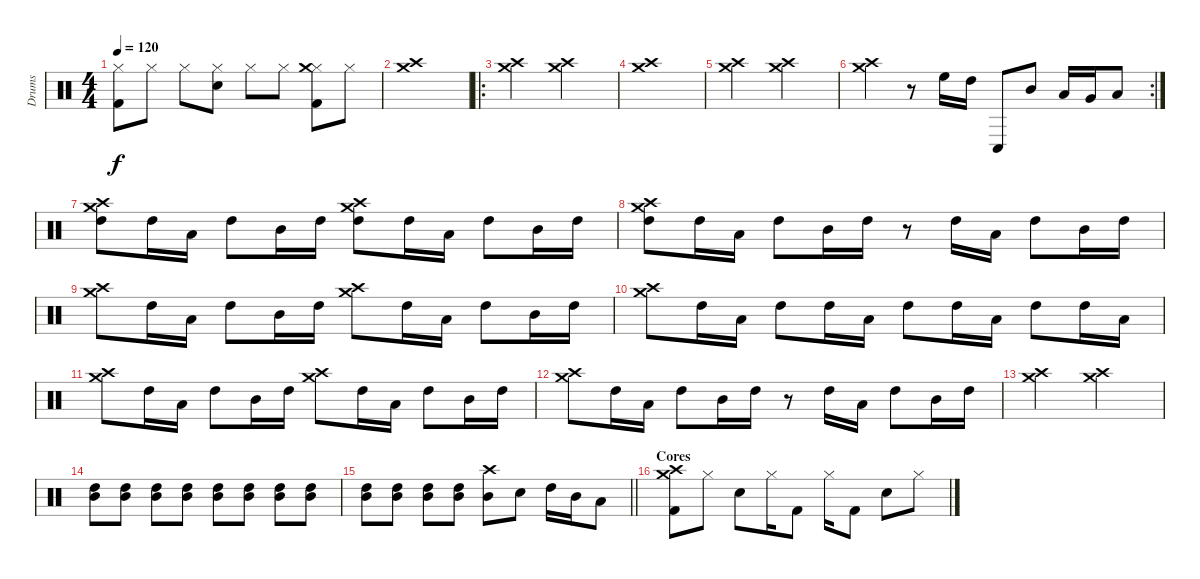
\track ("Drums" "Drums") {instrument percussion}
\staff {score}
\articulation defaults
\ts (4 4)
\tempo 120
\clef neutral
\ks c
("Kick (hit) 2" "Hi-Hat (closed)").8{dy f} "Hi-Hat (closed)".8 "Hi-Hat (closed)".8 ("Snare (hit) 2" "Hi-Hat (closed)").8 "Hi-Hat (closed)".8 "Hi-Hat (closed)".8 ("Kick (hit) 2" "Hi-Hat (closed)" "Crash medium (hit)").8 "Hi-Hat (closed)".8 |
("Crash high (hit)" "Crash medium (hit)").1 |
\ro
("Crash high (hit)" "Crash medium (hit)").2 ("Crash high (hit)" "Crash medium (hit)").2 |
("Crash high (hit)" "Crash medium (hit)").1 |
("Crash high (hit)" "Crash medium (hit)").2 ("Crash high (hit)" "Crash medium (hit)").2 |
\rc 2
("Crash high (hit)" "Crash medium (hit)").4 r.8 "High Floor Tom (hit)".16 "High Tom (hit)".16 "Conga low (hit)".8 "Mid Tom (hit)".8 "Low Tom (hit)".16 "Very Low Tom (hit)".16 "Low Floor Tom (hit)".8 |
("High Tom (hit)" "Crash high (hit)" "Crash medium (hit)").8 "High Tom (hit)".16 "Low Tom (hit)".16 "High Tom (hit)".8 "Mid Tom (hit)".16 "High Tom (hit)".16 ("High Tom (hit)" "Crash high (hit)" "Crash medium (hit)").8 "High Tom (hit)".16 "Low Tom (hit)".16 "High Tom (hit)".8 "Mid Tom (hit)".16 "High Tom (hit)".16 |
("High Tom (hit)" "Crash high (hit)" "Crash medium (hit)").8 "High Tom (hit)".16 "Low Tom (hit)".16 "High Tom (hit)".8 "Mid Tom (hit)".16 "High Tom (hit)".16 r.8 "High Tom (hit)".16 "Low Tom (hit)".16 "High Tom (hit)".8 "Mid Tom (hit)".16 "High Tom (hit)".16 |
("Crash high (hit)" "Crash medium (hit)").8 "High Tom (hit)".16 "Low Tom (hit)".16 "High Tom (hit)".8 "Mid Tom (hit)".16 "High Tom (hit)".16 ("Crash high (hit)" "Crash medium (hit)").8 "High Tom (hit)".16 "Low Tom (hit)".16 "High Tom (hit)".8 "Mid Tom (hit)".16 "High Tom (hit)".16 |
("Crash high (hit)" "Crash medium (hit)").8 "High Tom (hit)".16 "Low Tom (hit)".16 "High Tom (hit)".8 "High Tom (hit)".16 "Low Tom (hit)".16 "High Tom (hit)".8 "High Tom (hit)".16 "Low Tom (hit)".16 "High Tom (hit)".8 "High Tom (hit)".16 "Low Tom (hit)".16 |
("Crash high (hit)" "Crash medium (hit)").8 "High Tom (hit)".16 "Low Tom (hit)".16 "High Tom (hit)".8 "Mid Tom (hit)".16 "High Tom (hit)".16 ("Crash high (hit)" "Crash medium (hit)").8 "High Tom (hit)".16 "Low Tom (hit)".16 "High Tom (hit)".8 "Mid Tom (hit)".16 "High Tom (hit)".16 |
("Crash high (hit)" "Crash medium (hit)").8 "High Tom (hit)".16 "Low Tom (hit)".16 "High Tom (hit)".8 "Mid Tom (hit)".16 "High Tom (hit)".16 r.8 "High Tom (hit)".16 "Low Tom (hit)".16 "High Tom (hit)".8 "Mid Tom (hit)".16 "High Tom (hit)".16 |
("Crash high (hit)" "Crash medium (hit)").2 ("Crash high (hit)" "Crash medium (hit)").2 |
("Mid Tom (hit)" "High Tom (hit)").8 ("Mid Tom (hit)" "High Tom (hit)").8 ("Mid Tom (hit)" "High Tom (hit)").8 ("Mid Tom (hit)" "High Tom (hit)").8 ("Mid Tom (hit)" "High Tom (hit)").8 ("Mid Tom (hit)" "High Tom (hit)").8 ("Mid Tom (hit)" "High Tom (hit)").8 ("Mid Tom (hit)" "High Tom (hit)").8 |
\barLineRight lightlight
("Mid Tom (hit)" "High Tom (hit)").8 ("Mid Tom (hit)" "High Tom (hit)").8 ("Mid Tom (hit)" "High Tom (hit)").8 ("Mid Tom (hit)" "High Tom (hit)").8 ("Mid Tom (hit)" "Crash high (hit)").8 "Snare (hit) 2".8 "High Tom (hit)".16 "Mid Tom (hit)".16 "Low Tom (hit)".8 |
\section ("" "Cores")
("Kick (hit) 2" "Crash medium (hit)" "Crash high (hit)").8 "Hi-Hat (closed)".8 "Snare (hit) 2".8 "Hi-Hat (closed)".16 "Kick (hit) 2".8 "Hi-Hat (closed)".16 "Kick (hit) 2".8 "Snare (hit) 2".8 "Hi-Hat (closed)".8
